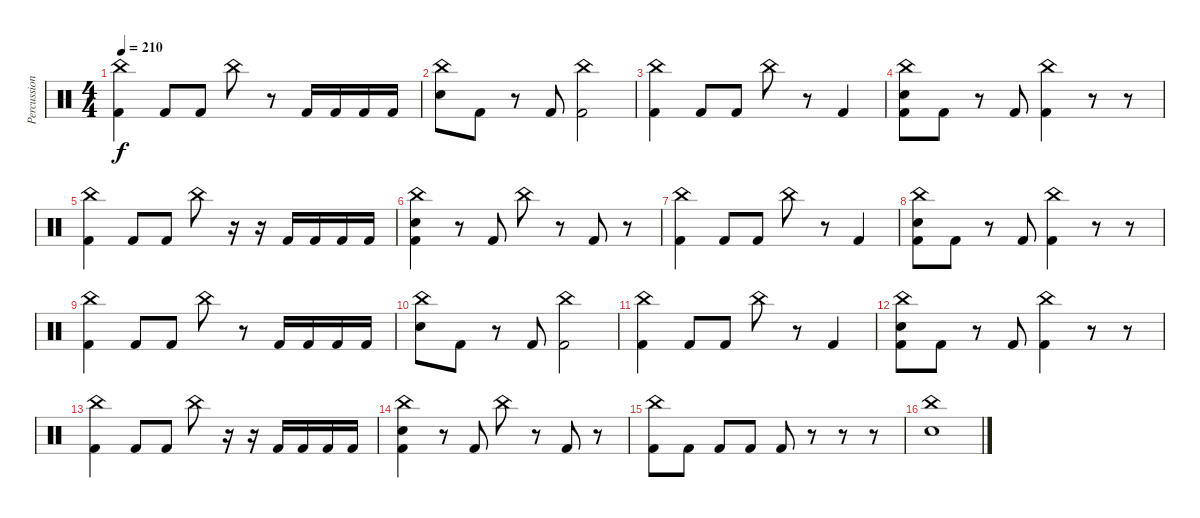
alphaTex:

\track ("Percussion" "Percussion") {instrument percussion}
\staff {score}
\articulation defaults
\ts (4 4)
\tempo 210
\clef neutral
\ks c
("China (hit)" "Kick (hit) 2").4{dy f} "Kick (hit) 2".8 "Kick (hit) 2".8 "China (hit)".8 r.8 "Kick (hit) 2".16 "Kick (hit) 2".16 "Kick (hit) 2".16 "Kick (hit) 2".16 |
("China (hit)" "Electric Snare (hit)").8 "Kick (hit) 2".8 r.8 "Kick (hit) 2".8 ("China (hit)" "Kick (hit) 2").2 |
("China (hit)" "Kick (hit) 2").4 "Kick (hit) 2".8 "Kick (hit) 2".8 "China (hit)".8 r.8 "Kick (hit) 2".4 |
("China (hit)" "Electric Snare (hit)" "Kick (hit) 2").8 "Kick (hit) 2".8 r.8 "Kick (hit) 2".8 ("China (hit)" "Kick (hit) 2").4 r.8 r.8 |
("China (hit)" "Kick (hit) 2").4 "Kick (hit) 2".8 "Kick (hit) 2".8 "China (hit)".8 r.16 r.16 "Kick (hit) 2".16 "Kick (hit) 2".16 "Kick (hit) 2".16 "Kick (hit) 2".16 |
("China (hit)" "Electric Snare (hit)" "Kick (hit) 2").4 r.8 "Kick (hit) 2".8 "China (hit)".8 r.8 "Kick (hit) 2".8 r.8 |
("China (hit)" "Kick (hit) 2").4 "Kick (hit) 2".8 "Kick (hit) 2".8 "China (hit)".8 r.8 "Kick (hit) 2".4 |
("China (hit)" "Electric Snare (hit)" "Kick (hit) 2").8 "Kick (hit) 2".8 r.8 "Kick (hit) 2".8 ("China (hit)" "Kick (hit) 2").4 r.8 r.8 |
("China (hit)" "Kick (hit) 2").4 "Kick (hit) 2".8 "Kick (hit) 2".8 "China (hit)".8 r.8 "Kick (hit) 2".16 "Kick (hit) 2".16 "Kick (hit) 2".16 "Kick (hit) 2".16 |
("China (hit)" "Electric Snare (hit)").8 "Kick (hit) 2".8 r.8 "Kick (hit) 2".8 ("China (hit)" "Kick (hit) 2").2 |
("China (hit)" "Kick (hit) 2").4 "Kick (hit) 2".8 "Kick (hit) 2".8 "China (hit)".8 r.8 "Kick (hit) 2".4 |
("China (hit)" "Electric Snare (hit)" "Kick (hit) 2").8 "Kick (hit) 2".8 r.8 "Kick (hit) 2".8 ("China (hit)" "Kick (hit) 2").4 r.8 r.8 |
("China (hit)" "Kick (hit) 2").4 "Kick (hit) 2".8 "Kick (hit) 2".8 "China (hit)".8 r.16 r.16 "Kick (hit) 2".16 "Kick (hit) 2".16 "Kick (hit) 2".16 "Kick (hit) 2".16 |
("China (hit)" "Electric Snare (hit)" "Kick (hit) 2").4 r.8 "Kick (hit) 2".8 "China (hit)".8 r.8 "Kick (hit) 2".8 r.8 |
("China (hit)" "Kick (hit) 2").8 "Kick (hit) 2".8 "Kick (hit) 2".8 "Kick (hit) 2".8 "Kick (hit) 2".8 r.8 r.8 r.8 |
("China (hit)" "Electric Snare (hit)").1
